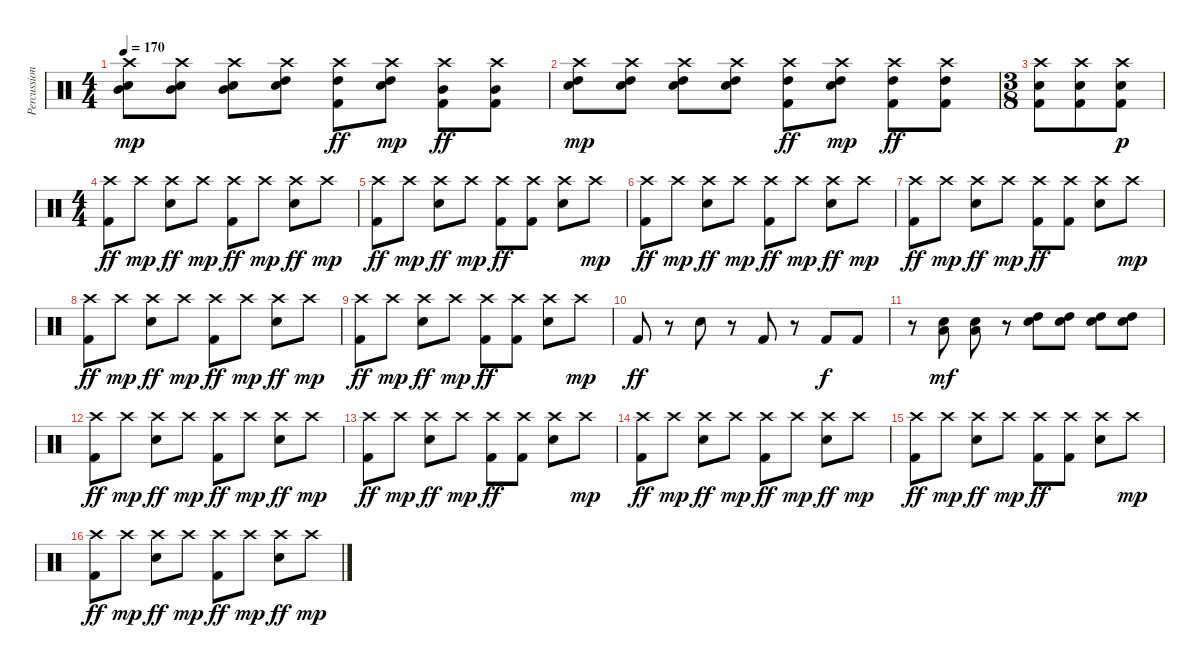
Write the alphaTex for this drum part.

\track ("Percussion" "Percussion") {instrument percussion}
\staff {score}
\articulation defaults
\ts (4 4)
\tempo 170
\clef neutral
\ks c
("Crash high (hit)" "Mid Tom (hit)" "Electric Snare (hit)").8{dy mp} ("Crash high (hit)" "Mid Tom (hit)" "Electric Snare (hit)").8 ("Crash high (hit)" "Mid Tom (hit)" "Electric Snare (hit)").8 ("Crash high (hit)" "High Tom (hit)" "Electric Snare (hit)").8 ("Crash high (hit)" "High Tom (hit)" "Kick (hit) 2").8{dy ff} ("Crash high (hit)" "High Tom (hit)" "Electric Snare (hit)").8{dy mp} ("Crash high (hit)" "Mid Tom (hit)" "Kick (hit) 2").8{dy ff} ("Crash high (hit)" "Mid Tom (hit)" "Kick (hit) 2").8 |
("Crash high (hit)" "High Tom (hit)" "Electric Snare (hit)").8{dy mp} ("Crash high (hit)" "High Tom (hit)" "Electric Snare (hit)").8 ("Crash high (hit)" "High Tom (hit)" "Electric Snare (hit)").8 ("Crash high (hit)" "High Tom (hit)" "Electric Snare (hit)").8 ("Crash high (hit)" "High Tom (hit)" "Kick (hit) 2").8{dy ff} ("Crash high (hit)" "High Tom (hit)" "Electric Snare (hit)").8{dy mp} ("Crash high (hit)" "High Tom (hit)" "Kick (hit) 2").8{dy ff} ("Crash high (hit)" "High Tom (hit)" "Kick (hit) 2").8 |
\ts (3 8)
("Crash high (hit)" "Electric Snare (hit)" "Kick (hit) 2").8 ("Crash high (hit)" "Electric Snare (hit)" "Kick (hit) 2").8 ("Crash high (hit)" "Electric Snare (hit)" "Kick (hit) 2").8{dy p} |
\ts (4 4)
("Crash high (hit)" "Kick (hit) 2").8{dy ff} "Crash high (hit)".8{dy mp} ("Crash high (hit)" "Electric Snare (hit)").8{dy ff} "Crash high (hit)".8{dy mp} ("Crash high (hit)" "Kick (hit) 2").8{dy ff} "Crash high (hit)".8{dy mp} ("Crash high (hit)" "Electric Snare (hit)").8{dy ff} "Crash high (hit)".8{dy mp} |
("Crash high (hit)" "Kick (hit) 2").8{dy ff} "Crash high (hit)".8{dy mp} ("Crash high (hit)" "Electric Snare (hit)").8{dy ff} "Crash high (hit)".8{dy mp} ("Crash high (hit)" "Kick (hit) 2").8{dy ff} ("Crash high (hit)" "Kick (hit) 2").8 ("Crash high (hit)" "Electric Snare (hit)").8 "Crash high (hit)".8{dy mp} |
("Crash high (hit)" "Kick (hit) 2").8{dy ff} "Crash high (hit)".8{dy mp} ("Crash high (hit)" "Electric Snare (hit)").8{dy ff} "Crash high (hit)".8{dy mp} ("Crash high (hit)" "Kick (hit) 2").8{dy ff} "Crash high (hit)".8{dy mp} ("Crash high (hit)" "Electric Snare (hit)").8{dy ff} "Crash high (hit)".8{dy mp} |
("Crash high (hit)" "Kick (hit) 2").8{dy ff} "Crash high (hit)".8{dy mp} ("Crash high (hit)" "Electric Snare (hit)").8{dy ff} "Crash high (hit)".8{dy mp} ("Crash high (hit)" "Kick (hit) 2").8{dy ff} ("Crash high (hit)" "Kick (hit) 2").8 ("Crash high (hit)" "Electric Snare (hit)").8 "Crash high (hit)".8{dy mp} |
("Crash high (hit)" "Kick (hit) 2").8{dy ff} "Crash high (hit)".8{dy mp} ("Crash high (hit)" "Electric Snare (hit)").8{dy ff} "Crash high (hit)".8{dy mp} ("Crash high (hit)" "Kick (hit) 2").8{dy ff} "Crash high (hit)".8{dy mp} ("Crash high (hit)" "Electric Snare (hit)").8{dy ff} "Crash high (hit)".8{dy mp} |
("Crash high (hit)" "Kick (hit) 2").8{dy ff} "Crash high (hit)".8{dy mp} ("Crash high (hit)" "Electric Snare (hit)").8{dy ff} "Crash high (hit)".8{dy mp} ("Crash high (hit)" "Kick (hit) 2").8{dy ff} ("Crash high (hit)" "Kick (hit) 2").8 ("Crash high (hit)" "Electric Snare (hit)").8 "Crash high (hit)".8{dy mp} |
"Kick (hit) 2".8{dy ff} r.8 "Electric Snare (hit)".8 r.8 "Kick (hit) 2".8 r.8 "Kick (hit) 2".8{dy f} "Kick (hit) 2".8 |
r.8 ("Low Tom (hit)" "Electric Snare (hit)").8{dy mf} ("Low Tom (hit)" "Electric Snare (hit)").8 r.8 ("High Tom (hit)" "Electric Snare (hit)").8 ("High Tom (hit)" "Electric Snare (hit)").8 ("High Tom (hit)" "Electric Snare (hit)").8 ("High Tom (hit)" "Electric Snare (hit)").8 |
("Crash high (hit)" "Kick (hit) 2").8{dy ff} "Crash high (hit)".8{dy mp} ("Crash high (hit)" "Electric Snare (hit)").8{dy ff} "Crash high (hit)".8{dy mp} ("Crash high (hit)" "Kick (hit) 2").8{dy ff} "Crash high (hit)".8{dy mp} ("Crash high (hit)" "Electric Snare (hit)").8{dy ff} "Crash high (hit)".8{dy mp} |
("Crash high (hit)" "Kick (hit) 2").8{dy ff} "Crash high (hit)".8{dy mp} ("Crash high (hit)" "Electric Snare (hit)").8{dy ff} "Crash high (hit)".8{dy mp} ("Crash high (hit)" "Kick (hit) 2").8{dy ff} ("Crash high (hit)" "Kick (hit) 2").8 ("Crash high (hit)" "Electric Snare (hit)").8 "Crash high (hit)".8{dy mp} |
("Crash high (hit)" "Kick (hit) 2").8{dy ff} "Crash high (hit)".8{dy mp} ("Crash high (hit)" "Electric Snare (hit)").8{dy ff} "Crash high (hit)".8{dy mp} ("Crash high (hit)" "Kick (hit) 2").8{dy ff} "Crash high (hit)".8{dy mp} ("Crash high (hit)" "Electric Snare (hit)").8{dy ff} "Crash high (hit)".8{dy mp} |
("Crash high (hit)" "Kick (hit) 2").8{dy ff} "Crash high (hit)".8{dy mp} ("Crash high (hit)" "Electric Snare (hit)").8{dy ff} "Crash high (hit)".8{dy mp} ("Crash high (hit)" "Kick (hit) 2").8{dy ff} ("Crash high (hit)" "Kick (hit) 2").8 ("Crash high (hit)" "Electric Snare (hit)").8 "Crash high (hit)".8{dy mp} |
("Crash high (hit)" "Kick (hit) 2").8{dy ff} "Crash high (hit)".8{dy mp} ("Crash high (hit)" "Electric Snare (hit)").8{dy ff} "Crash high (hit)".8{dy mp} ("Crash high (hit)" "Kick (hit) 2").8{dy ff} "Crash high (hit)".8{dy mp} ("Crash high (hit)" "Electric Snare (hit)").8{dy ff} "Crash high (hit)".8{dy mp}
